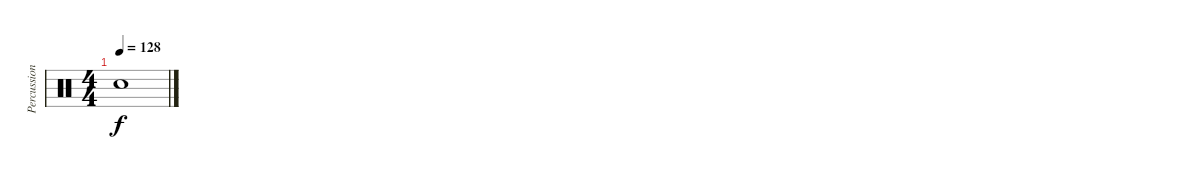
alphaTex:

\track ("Percussions" "Percussion") {instrument percussion}
\staff {score}
\articulation defaults
\ts (4 4)
\tempo 128
\clef neutral
\ks c "Snare (hit)"{t}.1{dy f}
